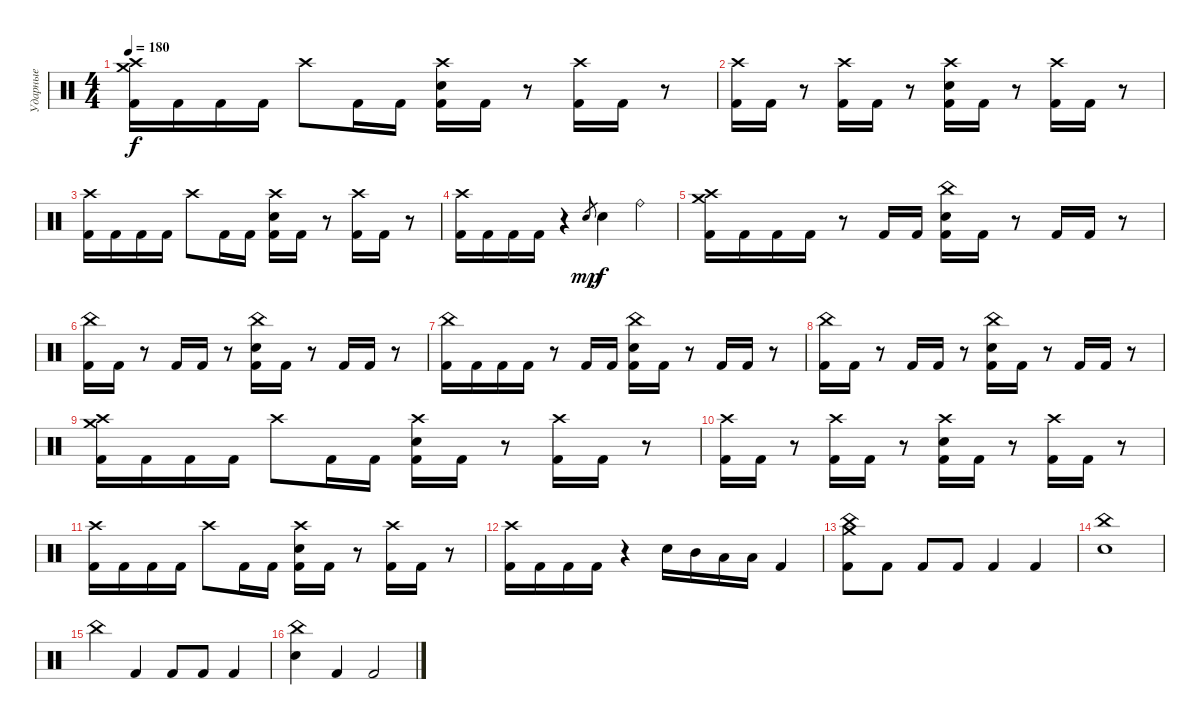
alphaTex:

\track ("Ударные" "Ударные") {instrument percussion}
\staff {score}
\articulation defaults
\ts (4 4)
\tempo 180
\clef neutral
\ks c
("Crash high (hit)" "Crash medium (hit)" "Kick (hit) 2").16{dy f} "Kick (hit) 2".16 "Kick (hit) 2".16 "Kick (hit) 2".16 "Crash high (hit)".8 "Kick (hit) 2".16 "Kick (hit) 2".16 ("Crash high (hit)" "Electric Snare (hit)" "Kick (hit) 2").16 "Kick (hit) 2".16 r.8 ("Crash high (hit)" "Kick (hit) 2").16 "Kick (hit) 2".16 r.8 |
("Crash high (hit)" "Kick (hit) 2").16 "Kick (hit) 2".16 r.8 ("Crash high (hit)" "Kick (hit) 2").16 "Kick (hit) 2".16 r.8 ("Crash high (hit)" "Electric Snare (hit)" "Kick (hit) 2").16 "Kick (hit) 2".16 r.8 ("Crash high (hit)" "Kick (hit) 2").16 "Kick (hit) 2".16 r.8 |
("Crash high (hit)" "Kick (hit) 2").16 "Kick (hit) 2".16 "Kick (hit) 2".16 "Kick (hit) 2".16 "Crash high (hit)".8 "Kick (hit) 2".16 "Kick (hit) 2".16 ("Crash high (hit)" "Electric Snare (hit)" "Kick (hit) 2").16 "Kick (hit) 2".16 r.8 ("Crash high (hit)" "Kick (hit) 2").16 "Kick (hit) 2".16 r.8 |
("Crash high (hit)" "Kick (hit) 2").16 "Kick (hit) 2".16 "Kick (hit) 2".16 "Kick (hit) 2".16 r.4 "Electric Snare (hit)".8{gr dy mp} "Electric Snare (hit)".4{dy f} "Ride (bell)".4 |
("Crash high (hit)" "Crash medium (hit)" "Kick (hit) 2").16 "Kick (hit) 2".16 "Kick (hit) 2".16 "Kick (hit) 2".16 r.8 "Kick (hit) 2".16 "Kick (hit) 2".16 ("China (hit)" "Electric Snare (hit)" "Kick (hit) 2").16 "Kick (hit) 2".16 r.8 "Kick (hit) 2".16 "Kick (hit) 2".16 r.8 |
("China (hit)" "Kick (hit) 2").16 "Kick (hit) 2".16 r.8 "Kick (hit) 2".16 "Kick (hit) 2".16 r.8 ("China (hit)" "Electric Snare (hit)" "Kick (hit) 2").16 "Kick (hit) 2".16 r.8 "Kick (hit) 2".16 "Kick (hit) 2".16 r.8 |
("China (hit)" "Kick (hit) 2").16 "Kick (hit) 2".16 "Kick (hit) 2".16 "Kick (hit) 2".16 r.8 "Kick (hit) 2".16 "Kick (hit) 2".16 ("China (hit)" "Electric Snare (hit)" "Kick (hit) 2").16 "Kick (hit) 2".16 r.8 "Kick (hit) 2".16 "Kick (hit) 2".16 r.8 |
("China (hit)" "Kick (hit) 2").16 "Kick (hit) 2".16 r.8 "Kick (hit) 2".16 "Kick (hit) 2".16 r.8 ("China (hit)" "Electric Snare (hit)" "Kick (hit) 2").16 "Kick (hit) 2".16 r.8 "Kick (hit) 2".16 "Kick (hit) 2".16 r.8 |
("Crash high (hit)" "Crash medium (hit)" "Kick (hit) 2").16 "Kick (hit) 2".16 "Kick (hit) 2".16 "Kick (hit) 2".16 "Crash high (hit)".8 "Kick (hit) 2".16 "Kick (hit) 2".16 ("Crash high (hit)" "Electric Snare (hit)" "Kick (hit) 2").16 "Kick (hit) 2".16 r.8 ("Crash high (hit)" "Kick (hit) 2").16 "Kick (hit) 2".16 r.8 |
("Crash high (hit)" "Kick (hit) 2").16 "Kick (hit) 2".16 r.8 ("Crash high (hit)" "Kick (hit) 2").16 "Kick (hit) 2".16 r.8 ("Crash high (hit)" "Electric Snare (hit)" "Kick (hit) 2").16 "Kick (hit) 2".16 r.8 ("Crash high (hit)" "Kick (hit) 2").16 "Kick (hit) 2".16 r.8 |
("Crash high (hit)" "Kick (hit) 2").16 "Kick (hit) 2".16 "Kick (hit) 2".16 "Kick (hit) 2".16 "Crash high (hit)".8 "Kick (hit) 2".16 "Kick (hit) 2".16 ("Crash high (hit)" "Electric Snare (hit)" "Kick (hit) 2").16 "Kick (hit) 2".16 r.8 ("Crash high (hit)" "Kick (hit) 2").16 "Kick (hit) 2".16 r.8 |
("Crash high (hit)" "Kick (hit) 2").16 "Kick (hit) 2".16 "Kick (hit) 2".16 "Kick (hit) 2".16 r.4 "Electric Snare (hit)".16 "Mid Tom (hit)".16 "Low Tom (hit)".16 "Low Tom (hit)".16 "Kick (hit) 2".4 |
("China (hit)" "Crash medium (hit)" "Kick (hit) 2").8 "Kick (hit) 2".8 "Kick (hit) 2".8 "Kick (hit) 2".8 "Kick (hit) 2".4 "Kick (hit) 2".4 |
("China (hit)" "Electric Snare (hit)").1 |
"China (hit)".4 "Kick (hit) 2".4 "Kick (hit) 2".8 "Kick (hit) 2".8 "Kick (hit) 2".4 |
("China (hit)" "Electric Snare (hit)").4 "Kick (hit) 2".4 "Kick (hit) 2".2
